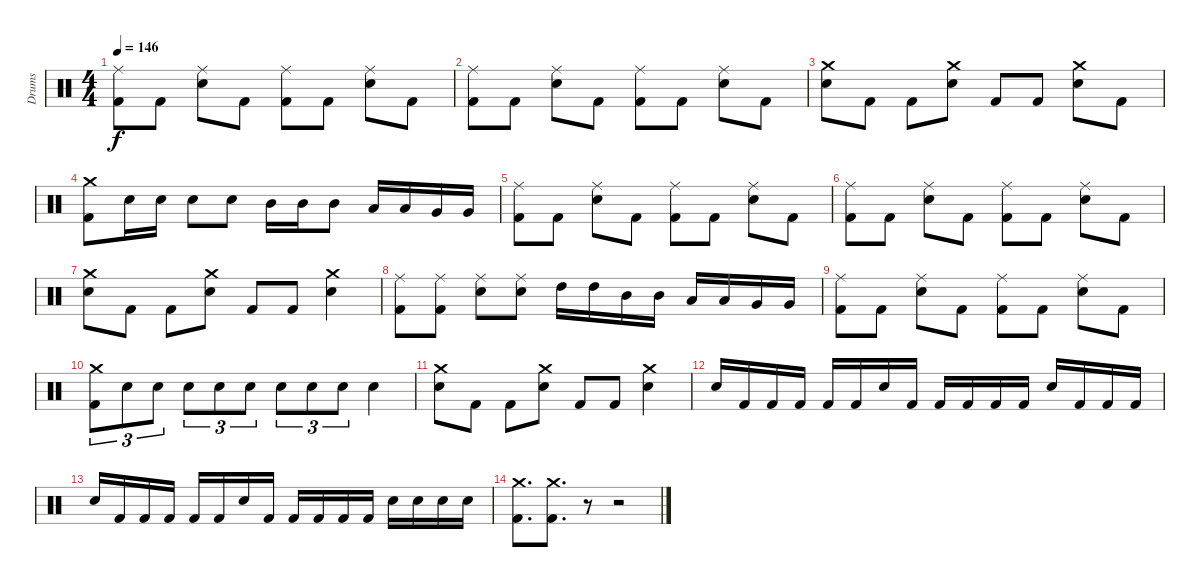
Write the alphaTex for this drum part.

\track ("Drums" "Drums") {instrument percussion}
\staff {score}
\articulation defaults
\ts (4 4)
\tempo 146
\clef neutral
\ks c
("Ride (middle)" "Kick (hit) 2").8{dy f} "Kick (hit) 2".8 ("Ride (middle)" "Electric Snare (hit)").8 "Kick (hit) 2".8 ("Ride (middle)" "Kick (hit) 2").8 "Kick (hit) 2".8 ("Ride (middle)" "Electric Snare (hit)").8 "Kick (hit) 2".8 |
("Ride (middle)" "Kick (hit) 2").8 "Kick (hit) 2".8 ("Ride (middle)" "Electric Snare (hit)").8 "Kick (hit) 2".8 ("Ride (middle)" "Kick (hit) 2").8 "Kick (hit) 2".8 ("Ride (middle)" "Electric Snare (hit)").8 "Kick (hit) 2".8 |
("Crash medium (hit)" "Electric Snare (hit)").8 "Kick (hit) 2".8 "Kick (hit) 2".8 ("Crash medium (hit)" "Electric Snare (hit)").8 "Kick (hit) 2".8 "Kick (hit) 2".8 ("Crash medium (hit)" "Electric Snare (hit)").8 "Kick (hit) 2".8 |
("Crash medium (hit)" "Kick (hit) 2").8 "Electric Snare (hit)".16 "Electric Snare (hit)".16 "Electric Snare (hit)".8 "Electric Snare (hit)".8 "Mid Tom (hit)".16 "Mid Tom (hit)".16 "Mid Tom (hit)".8 "Low Tom (hit)".16 "Low Tom (hit)".16 "Very Low Tom (hit)".16 "Very Low Tom (hit)".16 |
("Ride (middle)" "Kick (hit) 2").8 "Kick (hit) 2".8 ("Ride (middle)" "Electric Snare (hit)").8 "Kick (hit) 2".8 ("Ride (middle)" "Kick (hit) 2").8 "Kick (hit) 2".8 ("Ride (middle)" "Electric Snare (hit)").8 "Kick (hit) 2".8 |
("Ride (middle)" "Kick (hit) 2").8 "Kick (hit) 2".8 ("Ride (middle)" "Electric Snare (hit)").8 "Kick (hit) 2".8 ("Ride (middle)" "Kick (hit) 2").8 "Kick (hit) 2".8 ("Ride (middle)" "Electric Snare (hit)").8 "Kick (hit) 2".8 |
("Crash medium (hit)" "Electric Snare (hit)").8 "Kick (hit) 2".8 "Kick (hit) 2".8 ("Crash medium (hit)" "Electric Snare (hit)").8 "Kick (hit) 2".8 "Kick (hit) 2".8 ("Crash medium (hit)" "Electric Snare (hit)").4 |
("Ride (middle)" "Kick (hit) 2").8 ("Ride (middle)" "Kick (hit) 2").8 ("Ride (middle)" "Electric Snare (hit)").8 ("Ride (middle)" "Electric Snare (hit)").8 "High Tom (hit)".16 "High Tom (hit)".16 "Mid Tom (hit)".16 "Mid Tom (hit)".16 "Low Tom (hit)".16 "Low Tom (hit)".16 "Very Low Tom (hit)".16 "Very Low Tom (hit)".16 |
("Ride (middle)" "Kick (hit) 2").8 "Kick (hit) 2".8 ("Ride (middle)" "Electric Snare (hit)").8 "Kick (hit) 2".8 ("Ride (middle)" "Kick (hit) 2").8 "Kick (hit) 2".8 ("Ride (middle)" "Electric Snare (hit)").8 "Kick (hit) 2".8 |
("Crash medium (hit)" "Kick (hit) 2").8{tu (3 2)} "Electric Snare (hit)".8{tu (3 2)} "Electric Snare (hit)".8{tu (3 2)} "Electric Snare (hit)".8{tu (3 2)} "Electric Snare (hit)".8{tu (3 2)} "Electric Snare (hit)".8{tu (3 2)} "Electric Snare (hit)".8{tu (3 2)} "Electric Snare (hit)".8{tu (3 2)} "Electric Snare (hit)".8{tu (3 2)} "Electric Snare (hit)".4 |
("Crash medium (hit)" "Electric Snare (hit)").8 "Kick (hit) 2".8 "Kick (hit) 2".8 ("Crash medium (hit)" "Electric Snare (hit)").8 "Kick (hit) 2".8 "Kick (hit) 2".8 ("Crash medium (hit)" "Electric Snare (hit)").4 |
"Electric Snare (hit)".16 "Kick (hit) 2".16 "Kick (hit) 2".16 "Kick (hit) 2".16 "Kick (hit) 2".16 "Kick (hit) 2".16 "Electric Snare (hit)".16 "Kick (hit) 2".16 "Kick (hit) 2".16 "Kick (hit) 2".16 "Kick (hit) 2".16 "Kick (hit) 2".16 "Electric Snare (hit)".16 "Kick (hit) 2".16 "Kick (hit) 2".16 "Kick (hit) 2".16 |
"Electric Snare (hit)".16 "Kick (hit) 2".16 "Kick (hit) 2".16 "Kick (hit) 2".16 "Kick (hit) 2".16 "Kick (hit) 2".16 "Electric Snare (hit)".16 "Kick (hit) 2".16 "Kick (hit) 2".16 "Kick (hit) 2".16 "Kick (hit) 2".16 "Kick (hit) 2".16 "Electric Snare (hit)".16 "Electric Snare (hit)".16 "Electric Snare (hit)".16 "Electric Snare (hit)".16 |
("Crash medium (hit)" "Kick (hit) 2").8{d} ("Crash medium (hit)" "Kick (hit) 2").8{d} r.8 r.2
